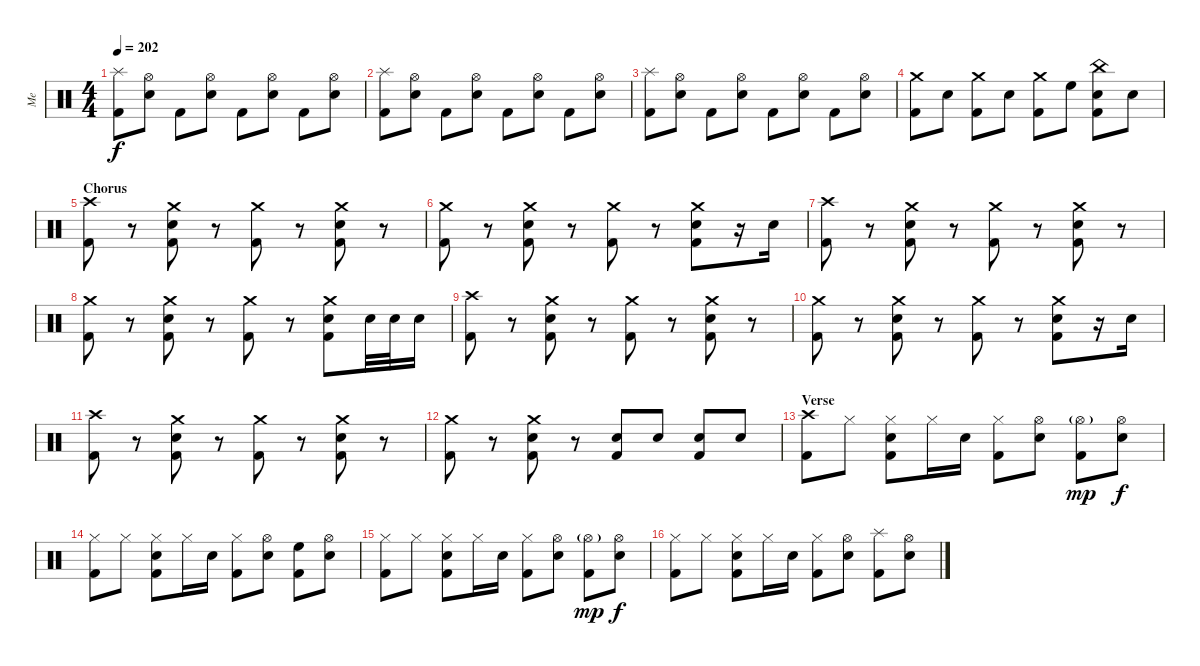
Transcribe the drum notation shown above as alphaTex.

\track ("Me" "Me") {instrument percussion}
\staff {score}
\articulation defaults
\ts (4 4)
\tempo 202
\clef neutral
\ks c
("Splash (hit)" "Kick (hit) 2").8{dy f} ("Hi-Hat (open)" "Electric Snare (hit)").8 "Kick (hit) 2".8 ("Hi-Hat (open)" "Electric Snare (hit)").8 "Kick (hit) 2".8 ("Hi-Hat (open)" "Electric Snare (hit)").8 "Kick (hit) 2".8 ("Hi-Hat (open)" "Electric Snare (hit)").8 |
("Splash (hit)" "Kick (hit) 2").8 ("Hi-Hat (open)" "Electric Snare (hit)").8 "Kick (hit) 2".8 ("Hi-Hat (open)" "Electric Snare (hit)").8 "Kick (hit) 2".8 ("Hi-Hat (open)" "Electric Snare (hit)").8 "Kick (hit) 2".8 ("Hi-Hat (open)" "Electric Snare (hit)").8 |
("Splash (hit)" "Kick (hit) 2").8 ("Hi-Hat (open)" "Electric Snare (hit)").8 "Kick (hit) 2".8 ("Hi-Hat (open)" "Electric Snare (hit)").8 "Kick (hit) 2".8 ("Hi-Hat (open)" "Electric Snare (hit)").8 "Kick (hit) 2".8 ("Hi-Hat (open)" "Electric Snare (hit)").8 |
("Crash medium (hit)" "Kick (hit) 2").8 "Electric Snare (hit)".8 ("Crash medium (hit)" "Kick (hit) 2").8 "Electric Snare (hit)".8 ("Crash medium (hit)" "Kick (hit) 2").8 "High Floor Tom (hit)".8 ("China (hit)" "Electric Snare (hit)" "Kick (hit) 2").8 "Electric Snare (hit)".8 |
\section ("" "Chorus")
("Crash high (hit)" "Kick (hit) 2").8 r.8 ("Crash medium (hit)" "Electric Snare (hit)" "Kick (hit) 2").8 r.8 ("Crash medium (hit)" "Kick (hit) 2").8 r.8 ("Crash medium (hit)" "Electric Snare (hit)" "Kick (hit) 2").8 r.8 |
("Crash medium (hit)" "Kick (hit) 2").8 r.8 ("Crash medium (hit)" "Electric Snare (hit)" "Kick (hit) 2").8 r.8 ("Crash medium (hit)" "Kick (hit) 2").8 r.8 ("Crash medium (hit)" "Electric Snare (hit)" "Kick (hit) 2").8 r.16 "Electric Snare (hit)".16 |
("Crash high (hit)" "Kick (hit) 2").8 r.8 ("Crash medium (hit)" "Electric Snare (hit)" "Kick (hit) 2").8 r.8 ("Crash medium (hit)" "Kick (hit) 2").8 r.8 ("Crash medium (hit)" "Electric Snare (hit)" "Kick (hit) 2").8 r.8 |
("Crash medium (hit)" "Kick (hit) 2").8 r.8 ("Crash medium (hit)" "Electric Snare (hit)" "Kick (hit) 2").8 r.8 ("Crash medium (hit)" "Kick (hit) 2").8 r.8 ("Crash medium (hit)" "Electric Snare (hit)" "Kick (hit) 2").8 "Electric Snare (hit)".32 "Electric Snare (hit)".32 "Electric Snare (hit)".16 |
("Crash high (hit)" "Kick (hit) 2").8 r.8 ("Crash medium (hit)" "Electric Snare (hit)" "Kick (hit) 2").8 r.8 ("Crash medium (hit)" "Kick (hit) 2").8 r.8 ("Crash medium (hit)" "Electric Snare (hit)" "Kick (hit) 2").8 r.8 |
("Crash medium (hit)" "Kick (hit) 2").8 r.8 ("Crash medium (hit)" "Electric Snare (hit)" "Kick (hit) 2").8 r.8 ("Crash medium (hit)" "Kick (hit) 2").8 r.8 ("Crash medium (hit)" "Electric Snare (hit)" "Kick (hit) 2").8 r.16 "Electric Snare (hit)".16 |
("Crash high (hit)" "Kick (hit) 2").8 r.8 ("Crash medium (hit)" "Electric Snare (hit)" "Kick (hit) 2").8 r.8 ("Crash medium (hit)" "Kick (hit) 2").8 r.8 ("Crash medium (hit)" "Electric Snare (hit)" "Kick (hit) 2").8 r.8 |
("Crash medium (hit)" "Kick (hit) 2").8 r.8 ("Crash medium (hit)" "Electric Snare (hit)" "Kick (hit) 2").8 r.8 ("Electric Snare (hit)" "Kick (hit) 2").8 "Electric Snare (hit)".8 ("Electric Snare (hit)" "Kick (hit) 2").8 "Electric Snare (hit)".8 |
\section ("" "Verse")
("Crash high (hit)" "Kick (hit) 2").8 "Hi-Hat (closed)".8 ("Hi-Hat (closed)" "Electric Snare (hit)" "Kick (hit) 2").8 "Hi-Hat (closed)".16 "Electric Snare (hit)".16 ("Hi-Hat (closed)" "Kick (hit) 2").8 ("Hi-Hat (open)" "Electric Snare (hit)").8 ("Hi-Hat (open)"{g} "Kick (hit) 2").8{dy mp} ("Hi-Hat (open)" "Electric Snare (hit)").8{dy f} |
("Hi-Hat (closed)" "Kick (hit) 2").8 "Hi-Hat (closed)".8 ("Hi-Hat (closed)" "Electric Snare (hit)" "Kick (hit) 2").8 "Hi-Hat (closed)".16 "Electric Snare (hit)".16 ("Hi-Hat (closed)" "Kick (hit) 2").8 ("Hi-Hat (open)" "Electric Snare (hit)").8 ("High Floor Tom (hit)" "Kick (hit) 2").8 ("Hi-Hat (open)" "Electric Snare (hit)").8 |
("Hi-Hat (closed)" "Kick (hit) 2").8 "Hi-Hat (closed)".8 ("Hi-Hat (closed)" "Electric Snare (hit)" "Kick (hit) 2").8 "Hi-Hat (closed)".16 "Electric Snare (hit)".16 ("Hi-Hat (closed)" "Kick (hit) 2").8 ("Hi-Hat (open)" "Electric Snare (hit)").8 ("Hi-Hat (open)"{g} "Kick (hit) 2").8{dy mp} ("Hi-Hat (open)" "Electric Snare (hit)").8{dy f} |
("Hi-Hat (closed)" "Kick (hit) 2").8 "Hi-Hat (closed)".8 ("Hi-Hat (closed)" "Electric Snare (hit)" "Kick (hit) 2").8 "Hi-Hat (closed)".16 "Electric Snare (hit)".16 ("Hi-Hat (closed)" "Kick (hit) 2").8 ("Hi-Hat (open)" "Electric Snare (hit)").8 ("Splash (hit)" "Kick (hit) 2").8 ("Hi-Hat (open)" "Electric Snare (hit)").8
